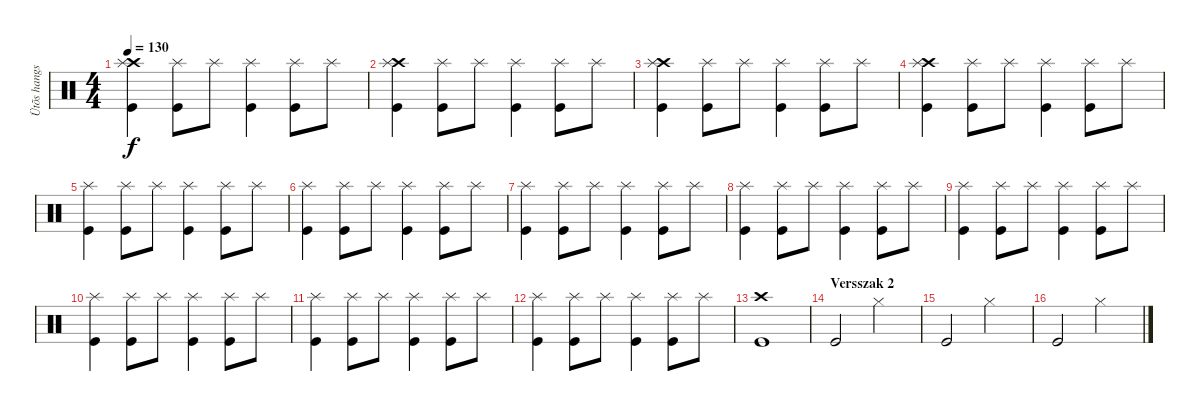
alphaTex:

\track ("Ütõs hangszer" "Ütõs hangs") {instrument percussion}
\staff {score}
\articulation defaults
\ts (4 4)
\tempo 130
\clef neutral
\ks c
("Crash high (hit)" "Splash (hit)" "Kick (hit)").4{dy f} ("Splash (hit)" "Kick (hit)").8 "Splash (hit)".8 ("Splash (hit)" "Kick (hit)").4 ("Splash (hit)" "Kick (hit)").8 "Splash (hit)".8 |
("Crash high (hit)" "Splash (hit)" "Kick (hit)").4 ("Splash (hit)" "Kick (hit)").8 "Splash (hit)".8 ("Splash (hit)" "Kick (hit)").4 ("Splash (hit)" "Kick (hit)").8 "Splash (hit)".8 |
("Crash high (hit)" "Splash (hit)" "Kick (hit)").4 ("Splash (hit)" "Kick (hit)").8 "Splash (hit)".8 ("Splash (hit)" "Kick (hit)").4 ("Splash (hit)" "Kick (hit)").8 "Splash (hit)".8 |
("Crash high (hit)" "Splash (hit)" "Kick (hit)").4 ("Splash (hit)" "Kick (hit)").8 "Splash (hit)".8 ("Splash (hit)" "Kick (hit)").4 ("Splash (hit)" "Kick (hit)").8 "Splash (hit)".8 |
("Splash (hit)" "Kick (hit)").4 ("Splash (hit)" "Kick (hit)").8 "Splash (hit)".8 ("Splash (hit)" "Kick (hit)").4 ("Splash (hit)" "Kick (hit)").8 "Splash (hit)".8 |
("Splash (hit)" "Kick (hit)").4 ("Splash (hit)" "Kick (hit)").8 "Splash (hit)".8 ("Splash (hit)" "Kick (hit)").4 ("Splash (hit)" "Kick (hit)").8 "Splash (hit)".8 |
("Splash (hit)" "Kick (hit)").4 ("Splash (hit)" "Kick (hit)").8 "Splash (hit)".8 ("Splash (hit)" "Kick (hit)").4 ("Splash (hit)" "Kick (hit)").8 "Splash (hit)".8 |
("Splash (hit)" "Kick (hit)").4 ("Splash (hit)" "Kick (hit)").8 "Splash (hit)".8 ("Splash (hit)" "Kick (hit)").4 ("Splash (hit)" "Kick (hit)").8 "Splash (hit)".8 |
("Splash (hit)" "Kick (hit)").4 ("Splash (hit)" "Kick (hit)").8 "Splash (hit)".8 ("Splash (hit)" "Kick (hit)").4 ("Splash (hit)" "Kick (hit)").8 "Splash (hit)".8 |
("Splash (hit)" "Kick (hit)").4 ("Splash (hit)" "Kick (hit)").8 "Splash (hit)".8 ("Splash (hit)" "Kick (hit)").4 ("Splash (hit)" "Kick (hit)").8 "Splash (hit)".8 |
("Splash (hit)" "Kick (hit)").4 ("Splash (hit)" "Kick (hit)").8 "Splash (hit)".8 ("Splash (hit)" "Kick (hit)").4 ("Splash (hit)" "Kick (hit)").8 "Splash (hit)".8 |
("Splash (hit)" "Kick (hit)").4 ("Splash (hit)" "Kick (hit)").8 "Splash (hit)".8 ("Splash (hit)" "Kick (hit)").4 ("Splash (hit)" "Kick (hit)").8 "Splash (hit)".8 |
("Crash high (hit)" "Kick (hit)").1 |
\section ("" "Versszak 2")
"Kick (hit)".2 "Hi-Hat (closed)".2 |
"Kick (hit)".2 "Hi-Hat (closed)".2 |
"Kick (hit)".2 "Hi-Hat (closed)".2
